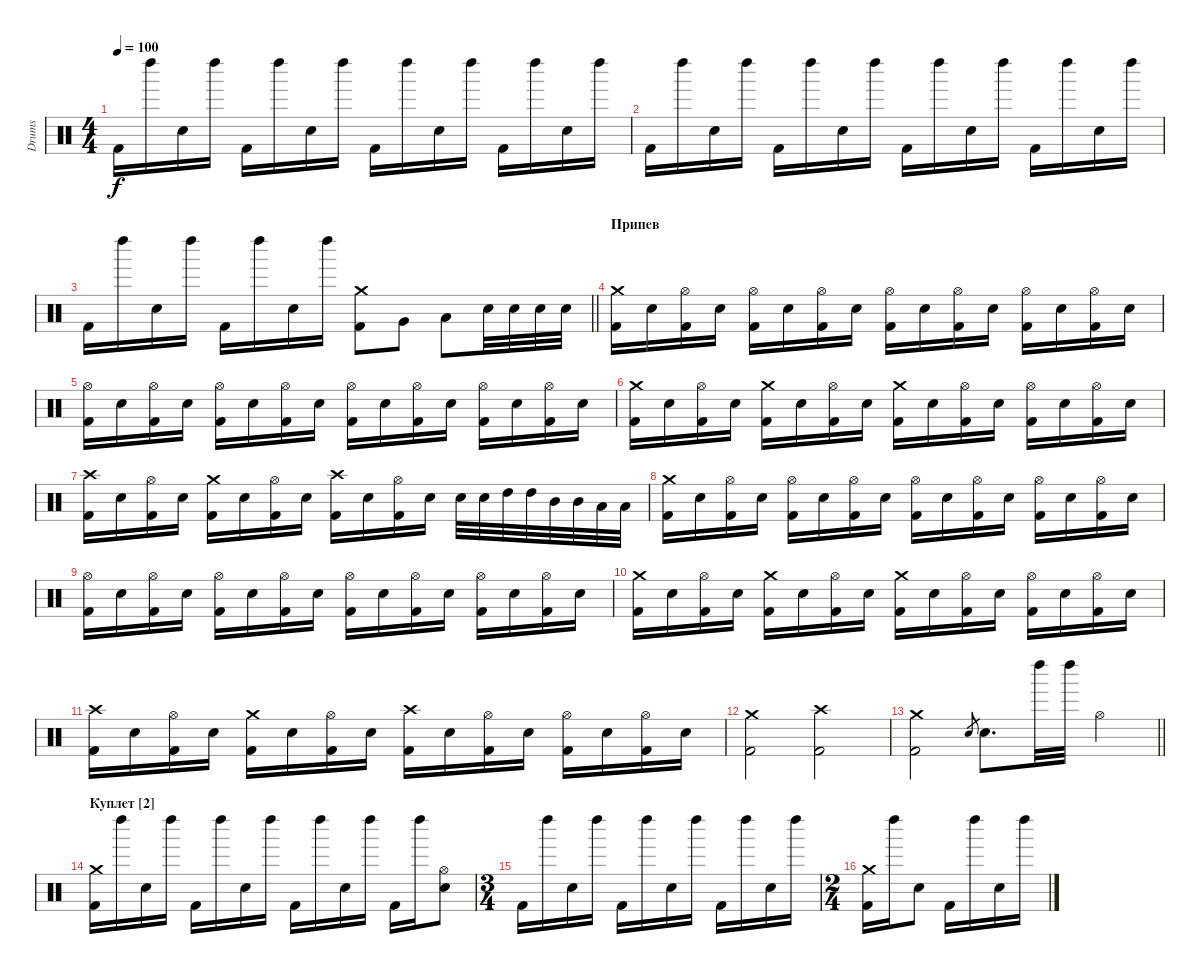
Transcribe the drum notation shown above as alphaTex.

\track ("Drums" "Drums") {instrument percussion}
\staff {score}
\articulation defaults
\ts (4 4)
\tempo 100
\clef neutral
\ks c "Kick (hit) 2".16{dy f} "Left Maraca (hit)".16 "Snare (hit) 2".16 "Left Maraca (hit)".16 "Kick (hit) 2".16 "Left Maraca (hit)".16 "Snare (hit) 2".16 "Left Maraca (hit)".16 "Kick (hit) 2".16 "Left Maraca (hit)".16 "Snare (hit) 2".16 "Left Maraca (hit)".16 "Kick (hit) 2".16 "Left Maraca (hit)".16 "Snare (hit) 2".16 "Left Maraca (hit)".16
|
"Kick (hit) 2".16 "Left Maraca (hit)".16 "Snare (hit) 2".16 "Left Maraca (hit)".16 "Kick (hit) 2".16 "Left Maraca (hit)".16 "Snare (hit) 2".16 "Left Maraca (hit)".16 "Kick (hit) 2".16 "Left Maraca (hit)".16 "Snare (hit) 2".16 "Left Maraca (hit)".16 "Kick (hit) 2".16 "Left Maraca (hit)".16 "Snare (hit) 2".16 "Left Maraca (hit)".16 |
\barLineRight lightlight "Kick (hit) 2".16 "Left Maraca (hit)".16 "Snare (hit) 2".16 "Left Maraca (hit)".16 "Kick (hit) 2".16 "Left Maraca (hit)".16 "Snare (hit) 2".16 "Left Maraca (hit)".16
("Crash medium (hit)" "Kick (hit) 2").8 "Very Low Tom (hit)".8 "Low Tom (hit)".8 "Snare (hit) 2".32 "Snare (hit) 2".32 "Snare (hit) 2".32 "Snare (hit) 2".32 |
\section ("" "Припев")
("Crash medium (hit)" "Kick (hit) 2").16 "Snare (hit) 2".16 ("Hi-Hat (open)" "Kick (hit) 2").16 "Snare (hit) 2".16 ("Hi-Hat (open)" "Kick (hit) 2").16 "Snare (hit) 2".16 ("Hi-Hat (open)" "Kick (hit) 2").16 "Snare (hit) 2".16 ("Hi-Hat (open)" "Kick (hit) 2").16 "Snare (hit) 2".16 ("Hi-Hat (open)" "Kick (hit) 2").16 "Snare (hit) 2".16 ("Hi-Hat (open)" "Kick (hit) 2").16 "Snare (hit) 2".16 ("Hi-Hat (open)" "Kick (hit) 2").16 "Snare (hit) 2".16 |
("Hi-Hat (open)" "Kick (hit) 2").16 "Snare (hit) 2".16 ("Hi-Hat (open)" "Kick (hit) 2").16 "Snare (hit) 2".16 ("Hi-Hat (open)" "Kick (hit) 2").16 "Snare (hit) 2".16 ("Hi-Hat (open)" "Kick (hit) 2").16 "Snare (hit) 2".16 ("Hi-Hat (open)" "Kick (hit) 2").16 "Snare (hit) 2".16 ("Hi-Hat (open)" "Kick (hit) 2").16 "Snare (hit) 2".16 ("Hi-Hat (open)" "Kick (hit) 2").16 "Snare (hit) 2".16 ("Hi-Hat (open)" "Kick (hit) 2").16 "Snare (hit) 2".16 |
("Crash medium (hit)" "Kick (hit) 2").16 "Snare (hit) 2".16 ("Hi-Hat (open)" "Kick (hit) 2").16 "Snare (hit) 2".16 ("Crash medium (hit)" "Kick (hit) 2").16 "Snare (hit) 2".16 ("Hi-Hat (open)" "Kick (hit) 2").16 "Snare (hit) 2".16 ("Crash medium (hit)" "Kick (hit) 2").16 "Snare (hit) 2".16 ("Hi-Hat (open)" "Kick (hit) 2").16 "Snare (hit) 2".16 ("Hi-Hat (open)" "Kick (hit) 2").16 "Snare (hit) 2".16 ("Hi-Hat (open)" "Kick (hit) 2").16 "Snare (hit) 2".16 |
("Crash high (hit)" "Kick (hit) 2").16 "Snare (hit) 2".16 ("Hi-Hat (open)" "Kick (hit) 2").16 "Snare (hit) 2".16 ("Crash medium (hit)" "Kick (hit) 2").16 "Snare (hit) 2".16 ("Hi-Hat (open)" "Kick (hit) 2").16 "Snare (hit) 2".16 ("Crash high (hit)" "Kick (hit) 2").16 "Snare (hit) 2".16 ("Hi-Hat (open)" "Kick (hit) 2").16 "Snare (hit) 2".16 "Snare (hit) 2".32 "Snare (hit) 2".32 "High Tom (hit)".32 "High Tom (hit)".32 "Mid Tom (hit)".32 "Mid Tom (hit)".32 "Low Tom (hit)".32 "Low Tom (hit)".32 |
("Crash medium (hit)" "Kick (hit) 2").16 "Snare (hit) 2".16 ("Hi-Hat (open)" "Kick (hit) 2").16 "Snare (hit) 2".16 ("Hi-Hat (open)" "Kick (hit) 2").16 "Snare (hit) 2".16 ("Hi-Hat (open)" "Kick (hit) 2").16 "Snare (hit) 2".16 ("Hi-Hat (open)" "Kick (hit) 2").16 "Snare (hit) 2".16 ("Hi-Hat (open)" "Kick (hit) 2").16 "Snare (hit) 2".16 ("Hi-Hat (open)" "Kick (hit) 2").16 "Snare (hit) 2".16 ("Hi-Hat (open)" "Kick (hit) 2").16 "Snare (hit) 2".16 |
("Hi-Hat (open)" "Kick (hit) 2").16 "Snare (hit) 2".16 ("Hi-Hat (open)" "Kick (hit) 2").16 "Snare (hit) 2".16 ("Hi-Hat (open)" "Kick (hit) 2").16 "Snare (hit) 2".16 ("Hi-Hat (open)" "Kick (hit) 2").16 "Snare (hit) 2".16 ("Hi-Hat (open)" "Kick (hit) 2").16 "Snare (hit) 2".16 ("Hi-Hat (open)" "Kick (hit) 2").16 "Snare (hit) 2".16 ("Hi-Hat (open)" "Kick (hit) 2").16 "Snare (hit) 2".16 ("Hi-Hat (open)" "Kick (hit) 2").16 "Snare (hit) 2".16 |
("Crash medium (hit)" "Kick (hit) 2").16 "Snare (hit) 2".16 ("Hi-Hat (open)" "Kick (hit) 2").16 "Snare (hit) 2".16 ("Crash medium (hit)" "Kick (hit) 2").16 "Snare (hit) 2".16 ("Hi-Hat (open)" "Kick (hit) 2").16 "Snare (hit) 2".16 ("Crash medium (hit)" "Kick (hit) 2").16 "Snare (hit) 2".16 ("Hi-Hat (open)" "Kick (hit) 2").16 "Snare (hit) 2".16 ("Hi-Hat (open)" "Kick (hit) 2").16 "Snare (hit) 2".16 ("Hi-Hat (open)" "Kick (hit) 2").16 "Snare (hit) 2".16 |
("Crash high (hit)" "Kick (hit) 2").16 "Snare (hit) 2".16 ("Hi-Hat (open)" "Kick (hit) 2").16 "Snare (hit) 2".16 ("Crash medium (hit)" "Kick (hit) 2").16 "Snare (hit) 2".16 ("Hi-Hat (open)" "Kick (hit) 2").16 "Snare (hit) 2".16 ("Crash high (hit)" "Kick (hit) 2").16 "Snare (hit) 2".16 ("Hi-Hat (open)" "Kick (hit) 2").16 "Snare (hit) 2".16 ("Hi-Hat (open)" "Kick (hit) 2").16 "Snare (hit) 2".16 ("Hi-Hat (open)" "Kick (hit) 2").16 "Snare (hit) 2".16 |
("Crash medium (hit)" "Kick (hit) 2").2 ("Crash high (hit)" "Kick (hit) 2").2 |
\barLineRight lightlight
("Crash medium (hit)" "Kick (hit) 2").2 "Snare (hit) 2".8{gr} "Snare (hit) 2".8{d} "Left Maraca (hit)".32 "Left Maraca (hit)".32 "Hi-Hat (open)".4 |
\section ("" "Куплет [2]")
("Crash medium (hit)" "Kick (hit) 2").16 "Left Maraca (hit)".16 "Snare (hit) 2".16 "Left Maraca (hit)".16 "Kick (hit) 2".16 "Left Maraca (hit)".16 "Snare (hit) 2".16 "Left Maraca (hit)".16 "Kick (hit) 2".16 "Left Maraca (hit)".16 "Snare (hit) 2".16 "Left Maraca (hit)".16 "Kick (hit) 2".16 "Left Maraca (hit)".16 ("Hi-Hat (open)" "Snare (hit) 2").8 |
\ts (3 4)
"Kick (hit) 2".16 "Left Maraca (hit)".16 "Snare (hit) 2".16 "Left Maraca (hit)".16 "Kick (hit) 2".16 "Left Maraca (hit)".16 "Snare (hit) 2".16 "Left Maraca (hit)".16 "Kick (hit) 2".16 "Left Maraca (hit)".16 "Snare (hit) 2".16 "Left Maraca (hit)".16 |
\ts (2 4)
("Crash medium (hit)" "Kick (hit) 2").16 "Left Maraca (hit)".16 "Snare (hit) 2".8 "Kick (hit) 2".16 "Left Maraca (hit)".16 "Snare (hit) 2".16 "Left Maraca (hit)".16
